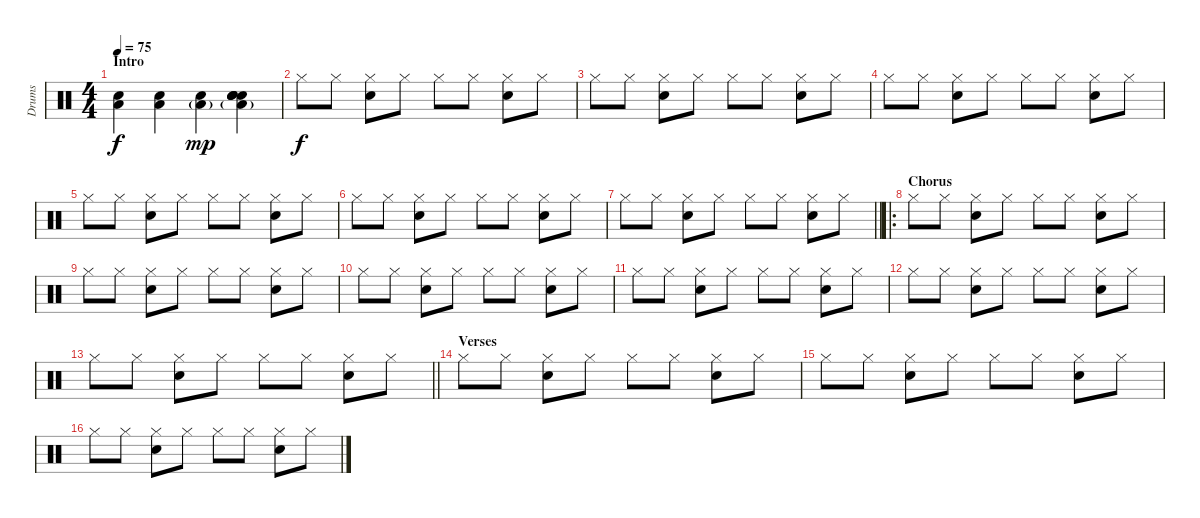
\track ("Drums" "Drums") {instrument percussion}
\staff {score}
\articulation defaults
\ts (4 4)
\section ("" "Intro")
\tempo 75
\clef neutral
\ks c
("Low Tom (hit)" "Electric Snare (hit)").4{dy f} ("Low Tom (hit)" "Electric Snare (hit)").4 ("Low Tom (hit)"{g} "Electric Snare (hit)").4{dy mp} ("Low Tom (hit)"{g} "Electric Snare (hit)" "Snare (hit)" "Snare (hit)" "Snare (hit)").4 |
"Hi-Hat (closed)".8{dy f} "Hi-Hat (closed)".8 ("Electric Snare (hit)" "Hi-Hat (closed)").8 "Hi-Hat (closed)".8 "Hi-Hat (closed)".8 "Hi-Hat (closed)".8 ("Electric Snare (hit)" "Hi-Hat (closed)").8 "Hi-Hat (closed)".8 |
"Hi-Hat (closed)".8 "Hi-Hat (closed)".8 ("Electric Snare (hit)" "Hi-Hat (closed)").8 "Hi-Hat (closed)".8 "Hi-Hat (closed)".8 "Hi-Hat (closed)".8 ("Electric Snare (hit)" "Hi-Hat (closed)").8 "Hi-Hat (closed)".8 |
"Hi-Hat (closed)".8 "Hi-Hat (closed)".8 ("Electric Snare (hit)" "Hi-Hat (closed)").8 "Hi-Hat (closed)".8 "Hi-Hat (closed)".8 "Hi-Hat (closed)".8 ("Electric Snare (hit)" "Hi-Hat (closed)").8 "Hi-Hat (closed)".8 |
"Hi-Hat (closed)".8 "Hi-Hat (closed)".8 ("Electric Snare (hit)" "Hi-Hat (closed)").8 "Hi-Hat (closed)".8 "Hi-Hat (closed)".8 "Hi-Hat (closed)".8 ("Electric Snare (hit)" "Hi-Hat (closed)").8 "Hi-Hat (closed)".8 |
"Hi-Hat (closed)".8 "Hi-Hat (closed)".8 ("Electric Snare (hit)" "Hi-Hat (closed)").8 "Hi-Hat (closed)".8 "Hi-Hat (closed)".8 "Hi-Hat (closed)".8 ("Electric Snare (hit)" "Hi-Hat (closed)").8 "Hi-Hat (closed)".8 |
\barLineRight lightlight "Hi-Hat (closed)".8 "Hi-Hat (closed)".8
("Electric Snare (hit)" "Hi-Hat (closed)").8 "Hi-Hat (closed)".8 "Hi-Hat (closed)".8 "Hi-Hat (closed)".8 ("Electric Snare (hit)" "Hi-Hat (closed)").8 "Hi-Hat (closed)".8 |
\ro
\section ("" "Chorus")
"Hi-Hat (closed)".8 "Hi-Hat (closed)".8 ("Electric Snare (hit)" "Hi-Hat (closed)").8 "Hi-Hat (closed)".8 "Hi-Hat (closed)".8 "Hi-Hat (closed)".8 ("Electric Snare (hit)" "Hi-Hat (closed)").8 "Hi-Hat (closed)".8 |
"Hi-Hat (closed)".8 "Hi-Hat (closed)".8 ("Electric Snare (hit)" "Hi-Hat (closed)").8 "Hi-Hat (closed)".8 "Hi-Hat (closed)".8 "Hi-Hat (closed)".8 ("Electric Snare (hit)" "Hi-Hat (closed)").8 "Hi-Hat (closed)".8 |
"Hi-Hat (closed)".8 "Hi-Hat (closed)".8 ("Electric Snare (hit)" "Hi-Hat (closed)").8 "Hi-Hat (closed)".8 "Hi-Hat (closed)".8 "Hi-Hat (closed)".8 ("Electric Snare (hit)" "Hi-Hat (closed)").8 "Hi-Hat (closed)".8 |
"Hi-Hat (closed)".8 "Hi-Hat (closed)".8 ("Electric Snare (hit)" "Hi-Hat (closed)").8 "Hi-Hat (closed)".8 "Hi-Hat (closed)".8 "Hi-Hat (closed)".8 ("Electric Snare (hit)" "Hi-Hat (closed)").8 "Hi-Hat (closed)".8 |
"Hi-Hat (closed)".8 "Hi-Hat (closed)".8 ("Electric Snare (hit)" "Hi-Hat (closed)").8 "Hi-Hat (closed)".8 "Hi-Hat (closed)".8 "Hi-Hat (closed)".8 ("Electric Snare (hit)" "Hi-Hat (closed)").8 "Hi-Hat (closed)".8 |
\barLineRight lightlight "Hi-Hat (closed)".8 "Hi-Hat (closed)".8
("Electric Snare (hit)" "Hi-Hat (closed)").8 "Hi-Hat (closed)".8 "Hi-Hat (closed)".8 "Hi-Hat (closed)".8 ("Electric Snare (hit)" "Hi-Hat (closed)").8 "Hi-Hat (closed)".8 |
\section ("" "Verses")
"Hi-Hat (closed)".8 "Hi-Hat (closed)".8 ("Electric Snare (hit)" "Hi-Hat (closed)").8 "Hi-Hat (closed)".8 "Hi-Hat (closed)".8 "Hi-Hat (closed)".8 ("Electric Snare (hit)" "Hi-Hat (closed)").8 "Hi-Hat (closed)".8 |
"Hi-Hat (closed)".8 "Hi-Hat (closed)".8 ("Electric Snare (hit)" "Hi-Hat (closed)").8 "Hi-Hat (closed)".8 "Hi-Hat (closed)".8 "Hi-Hat (closed)".8 ("Electric Snare (hit)" "Hi-Hat (closed)").8 "Hi-Hat (closed)".8 |
"Hi-Hat (closed)".8 "Hi-Hat (closed)".8 ("Electric Snare (hit)" "Hi-Hat (closed)").8 "Hi-Hat (closed)".8 "Hi-Hat (closed)".8 "Hi-Hat (closed)".8 ("Electric Snare (hit)" "Hi-Hat (closed)").8 "Hi-Hat (closed)".8
